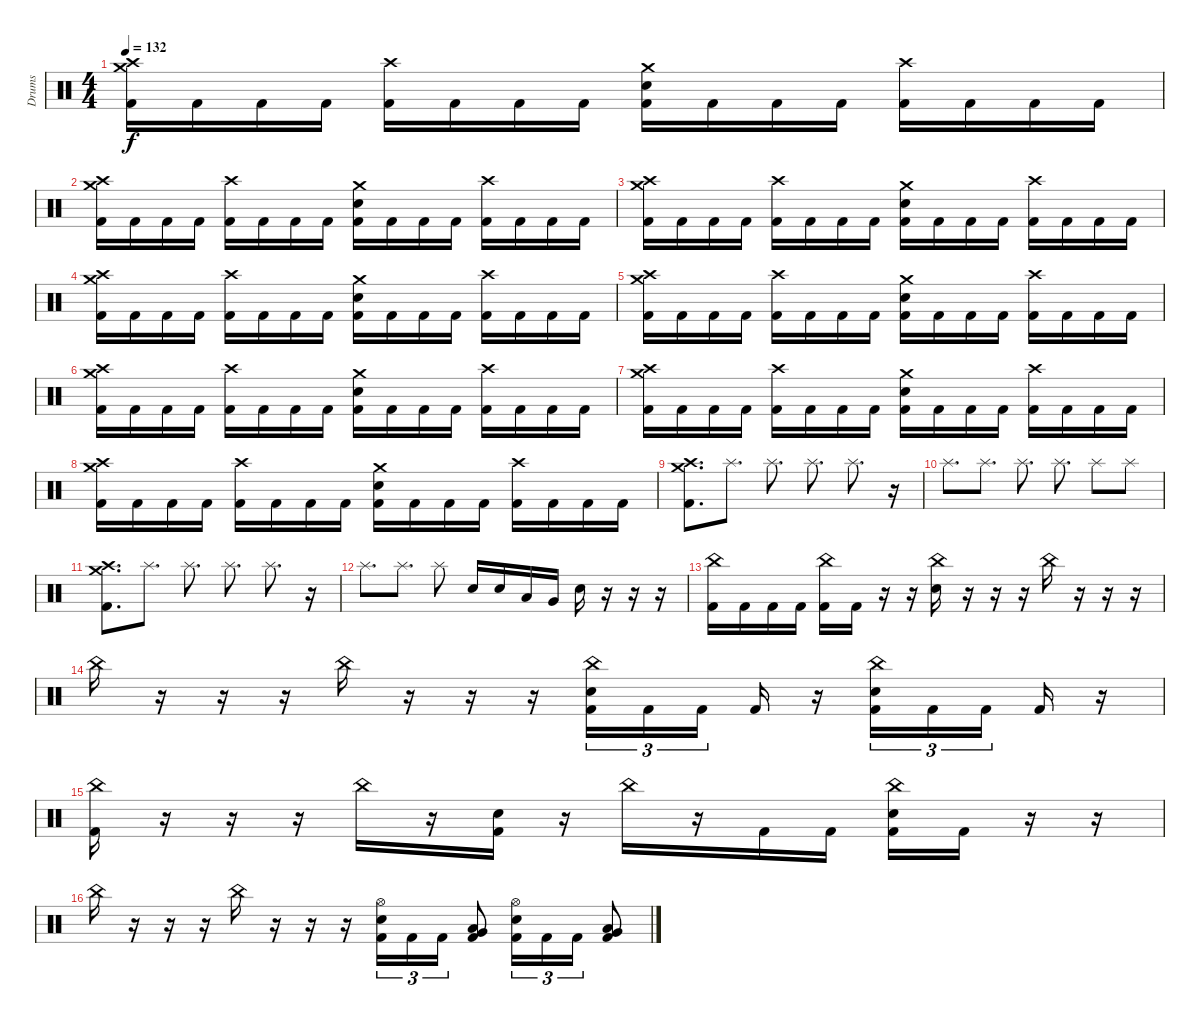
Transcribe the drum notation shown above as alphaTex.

\track ("Drums" "Drums") {instrument percussion}
\staff {score}
\articulation defaults
\ts (4 4)
\tempo 132
\clef neutral
\ks c
("Crash medium (hit)" "Crash high (hit)" "Kick (hit) 2").16{dy f} "Kick (hit) 2".16 "Kick (hit) 2".16 "Kick (hit) 2".16 ("Crash high (hit)" "Kick (hit) 2").16 "Kick (hit) 2".16 "Kick (hit) 2".16 "Kick (hit) 2".16 ("Crash medium (hit)" "Electric Snare (hit)" "Kick (hit) 2").16 "Kick (hit) 2".16 "Kick (hit) 2".16 "Kick (hit) 2".16 ("Crash high (hit)" "Kick (hit) 2").16 "Kick (hit) 2".16 "Kick (hit) 2".16 "Kick (hit) 2".16 |
("Crash medium (hit)" "Crash high (hit)" "Kick (hit) 2").16 "Kick (hit) 2".16 "Kick (hit) 2".16 "Kick (hit) 2".16 ("Crash high (hit)" "Kick (hit) 2").16 "Kick (hit) 2".16 "Kick (hit) 2".16 "Kick (hit) 2".16 ("Crash medium (hit)" "Electric Snare (hit)" "Kick (hit) 2").16 "Kick (hit) 2".16 "Kick (hit) 2".16 "Kick (hit) 2".16 ("Crash high (hit)" "Kick (hit) 2").16 "Kick (hit) 2".16 "Kick (hit) 2".16 "Kick (hit) 2".16 |
("Crash medium (hit)" "Crash high (hit)" "Kick (hit) 2").16 "Kick (hit) 2".16 "Kick (hit) 2".16 "Kick (hit) 2".16 ("Crash high (hit)" "Kick (hit) 2").16 "Kick (hit) 2".16 "Kick (hit) 2".16 "Kick (hit) 2".16 ("Crash medium (hit)" "Electric Snare (hit)" "Kick (hit) 2").16 "Kick (hit) 2".16 "Kick (hit) 2".16 "Kick (hit) 2".16 ("Crash high (hit)" "Kick (hit) 2").16 "Kick (hit) 2".16 "Kick (hit) 2".16 "Kick (hit) 2".16 |
("Crash medium (hit)" "Crash high (hit)" "Kick (hit) 2").16 "Kick (hit) 2".16 "Kick (hit) 2".16 "Kick (hit) 2".16 ("Crash high (hit)" "Kick (hit) 2").16 "Kick (hit) 2".16 "Kick (hit) 2".16 "Kick (hit) 2".16 ("Crash medium (hit)" "Electric Snare (hit)" "Kick (hit) 2").16 "Kick (hit) 2".16 "Kick (hit) 2".16 "Kick (hit) 2".16 ("Crash high (hit)" "Kick (hit) 2").16 "Kick (hit) 2".16 "Kick (hit) 2".16 "Kick (hit) 2".16 |
("Crash medium (hit)" "Crash high (hit)" "Kick (hit) 2").16 "Kick (hit) 2".16 "Kick (hit) 2".16 "Kick (hit) 2".16 ("Crash high (hit)" "Kick (hit) 2").16 "Kick (hit) 2".16 "Kick (hit) 2".16 "Kick (hit) 2".16 ("Crash medium (hit)" "Electric Snare (hit)" "Kick (hit) 2").16 "Kick (hit) 2".16 "Kick (hit) 2".16 "Kick (hit) 2".16 ("Crash high (hit)" "Kick (hit) 2").16 "Kick (hit) 2".16 "Kick (hit) 2".16 "Kick (hit) 2".16 |
("Crash medium (hit)" "Crash high (hit)" "Kick (hit) 2").16 "Kick (hit) 2".16 "Kick (hit) 2".16 "Kick (hit) 2".16 ("Crash high (hit)" "Kick (hit) 2").16 "Kick (hit) 2".16 "Kick (hit) 2".16 "Kick (hit) 2".16 ("Crash medium (hit)" "Electric Snare (hit)" "Kick (hit) 2").16 "Kick (hit) 2".16 "Kick (hit) 2".16 "Kick (hit) 2".16 ("Crash high (hit)" "Kick (hit) 2").16 "Kick (hit) 2".16 "Kick (hit) 2".16 "Kick (hit) 2".16 |
("Crash medium (hit)" "Crash high (hit)" "Kick (hit) 2").16 "Kick (hit) 2".16 "Kick (hit) 2".16 "Kick (hit) 2".16 ("Crash high (hit)" "Kick (hit) 2").16 "Kick (hit) 2".16 "Kick (hit) 2".16 "Kick (hit) 2".16 ("Crash medium (hit)" "Electric Snare (hit)" "Kick (hit) 2").16 "Kick (hit) 2".16 "Kick (hit) 2".16 "Kick (hit) 2".16 ("Crash high (hit)" "Kick (hit) 2").16 "Kick (hit) 2".16 "Kick (hit) 2".16 "Kick (hit) 2".16 |
("Crash medium (hit)" "Crash high (hit)" "Kick (hit) 2").16 "Kick (hit) 2".16 "Kick (hit) 2".16 "Kick (hit) 2".16 ("Crash high (hit)" "Kick (hit) 2").16 "Kick (hit) 2".16 "Kick (hit) 2".16 "Kick (hit) 2".16 ("Crash medium (hit)" "Electric Snare (hit)" "Kick (hit) 2").16 "Kick (hit) 2".16 "Kick (hit) 2".16 "Kick (hit) 2".16 ("Crash high (hit)" "Kick (hit) 2").16 "Kick (hit) 2".16 "Kick (hit) 2".16 "Kick (hit) 2".16 |
("Crash medium (hit)" "Crash high (hit)" "Kick (hit) 2").8{d} "Splash (hit)".8{d} "Splash (hit)".8{d} "Splash (hit)".8{d} "Splash (hit)".8{d} r.16 |
"Splash (hit)".8{d} "Splash (hit)".8{d} "Splash (hit)".8{d} "Splash (hit)".8{d} "Splash (hit)".8 "Splash (hit)".8 |
("Crash medium (hit)" "Crash high (hit)" "Kick (hit) 2").8{d} "Splash (hit)".8{d} "Splash (hit)".8{d} "Splash (hit)".8{d} "Splash (hit)".8{d} r.16 |
"Splash (hit)".8{d} "Splash (hit)".8{d} "Splash (hit)".8 "Electric Snare (hit)".16 "Electric Snare (hit)".16 "Low Tom (hit)".16 "Very Low Tom (hit)".16 "Electric Snare (hit)".16 r.16 r.16 r.16 |
("China (hit)" "Kick (hit) 2").16 "Kick (hit) 2".16 "Kick (hit) 2".16 "Kick (hit) 2".16 ("China (hit)" "Kick (hit) 2").16 "Kick (hit) 2".16 r.16 r.16 ("China (hit)" "Electric Snare (hit)").16 r.16 r.16 r.16 "China (hit)".16 r.16 r.16 r.16 |
"China (hit)".16 r.16 r.16 r.16 "China (hit)".16 r.16 r.16 r.16 ("China (hit)" "Electric Snare (hit)" "Kick (hit) 2").16{tu (3 2)} "Kick (hit) 2".16{tu (3 2)} "Kick (hit) 2".16{tu (3 2)} "Kick (hit) 2".16 r.16 ("China (hit)" "Electric Snare (hit)" "Kick (hit) 2").16{tu (3 2)} "Kick (hit) 2".16{tu (3 2)} "Kick (hit) 2".16{tu (3 2)} "Kick (hit) 2".16 r.16 |
("China (hit)" "Kick (hit) 2").16 r.16 r.16 r.16 "China (hit)".16 r.16 ("Electric Snare (hit)" "Kick (hit) 2").16 r.16 "China (hit)".16 r.16 "Kick (hit) 2".16 "Kick (hit) 2".16 ("China (hit)" "Electric Snare (hit)" "Kick (hit) 2").16 "Kick (hit) 2".16 r.16 r.16 |
"China (hit)".16 r.16 r.16 r.16 "China (hit)".16 r.16 r.16 r.16 ("Hi-Hat (open)" "Electric Snare (hit)" "Kick (hit) 2").16{tu (3 2)} "Kick (hit) 2".16{tu (3 2)} "Kick (hit) 2".16{tu (3 2)} ("Very Low Tom (hit)" "Low Floor Tom (hit)" "Kick (hit) 2").8 ("Hi-Hat (open)" "Electric Snare (hit)" "Kick (hit) 2").16{tu (3 2)} "Kick (hit) 2".16{tu (3 2)} "Kick (hit) 2".16{tu (3 2)} ("Very Low Tom (hit)" "Low Floor Tom (hit)" "Kick (hit) 2").8
